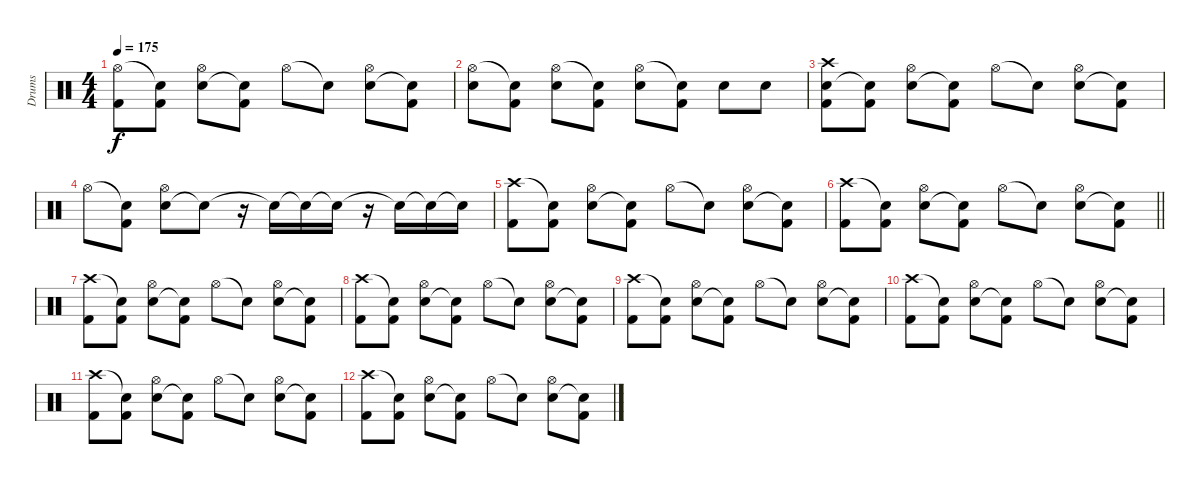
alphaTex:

\track ("Drums" "Drums") {instrument percussion}
\staff {score}
\articulation defaults
\ts (4 4)
\tempo 175
\clef neutral
\ks c
("Hi-Hat (open)" "Kick (hit) 2").8{dy f} ("Snare (hit)"{t} "Kick (hit) 2").8 ("Snare (hit) 2" "Hi-Hat (open)").8 ("Snare (hit)"{t} "Kick (hit) 2").8 "Hi-Hat (open)".8 "Snare (hit)"{t}.8 ("Snare (hit) 2" "Hi-Hat (open)").8 ("Snare (hit)"{t} "Kick (hit) 2").8 |
("Hi-Hat (open)" "Snare (hit) 2").8 ("Snare (hit)"{t} "Kick (hit) 2").8 ("Hi-Hat (open)" "Snare (hit) 2").8 ("Snare (hit)"{t} "Kick (hit) 2").8 ("Hi-Hat (open)" "Snare (hit) 2").8 ("Snare (hit)"{t} "Kick (hit) 2").8 "Snare (hit) 2".8 "Snare (hit) 2".8 |
("Snare (hit) 2" "Crash high (hit)" "Kick (hit) 2").8 ("Snare (hit)"{t} "Kick (hit) 2").8 ("Snare (hit) 2" "Hi-Hat (open)").8 ("Snare (hit)"{t} "Kick (hit) 2").8 "Hi-Hat (open)".8 "Snare (hit)"{t}.8 ("Snare (hit) 2" "Hi-Hat (open)").8 ("Snare (hit)"{t} "Kick (hit) 2").8 |
"Hi-Hat (open)".8 ("Snare (hit)"{t} "Kick (hit) 2").8 ("Snare (hit) 2" "Hi-Hat (open)").8 "Snare (hit)"{t}.8 r.16 "Snare (hit)"{t}.16 "Snare (hit)"{t}.16 "Snare (hit)"{t}.16 r.16 "Snare (hit)"{t}.16 "Snare (hit)"{t}.16 "Snare (hit)"{t}.16 |
("Crash high (hit)" "Kick (hit) 2").8 ("Snare (hit)"{t} "Kick (hit) 2").8 ("Snare (hit) 2" "Hi-Hat (open)").8 ("Snare (hit)"{t} "Kick (hit) 2").8 "Hi-Hat (open)".8 "Snare (hit)"{t}.8 ("Snare (hit) 2" "Hi-Hat (open)").8 ("Snare (hit)"{t} "Kick (hit) 2").8 |
\barLineRight lightlight
("Crash high (hit)" "Kick (hit) 2").8 ("Snare (hit)"{t} "Kick (hit) 2").8 ("Snare (hit) 2" "Hi-Hat (open)").8 ("Snare (hit)"{t} "Kick (hit) 2").8 "Hi-Hat (open)".8 "Snare (hit)"{t}.8 ("Snare (hit) 2" "Hi-Hat (open)").8 ("Snare (hit)"{t} "Kick (hit) 2").8 |
("Crash high (hit)" "Kick (hit) 2").8 ("Snare (hit)"{t} "Kick (hit) 2").8 ("Snare (hit) 2" "Hi-Hat (open)").8 ("Snare (hit)"{t} "Kick (hit) 2").8 "Hi-Hat (open)".8 "Snare (hit)"{t}.8 ("Snare (hit) 2" "Hi-Hat (open)").8 ("Snare (hit)"{t} "Kick (hit) 2").8 |
("Crash high (hit)" "Kick (hit) 2").8 ("Snare (hit)"{t} "Kick (hit) 2").8 ("Snare (hit) 2" "Hi-Hat (open)").8 ("Snare (hit)"{t} "Kick (hit) 2").8 "Hi-Hat (open)".8 "Snare (hit)"{t}.8 ("Snare (hit) 2" "Hi-Hat (open)").8 ("Snare (hit)"{t} "Kick (hit) 2").8 |
("Crash high (hit)" "Kick (hit) 2").8 ("Snare (hit)"{t} "Kick (hit) 2").8 ("Snare (hit) 2" "Hi-Hat (open)").8 ("Snare (hit)"{t} "Kick (hit) 2").8 "Hi-Hat (open)".8 "Snare (hit)"{t}.8 ("Snare (hit) 2" "Hi-Hat (open)").8 ("Snare (hit)"{t} "Kick (hit) 2").8 |
("Crash high (hit)" "Kick (hit) 2").8 ("Snare (hit)"{t} "Kick (hit) 2").8 ("Snare (hit) 2" "Hi-Hat (open)").8 ("Snare (hit)"{t} "Kick (hit) 2").8 "Hi-Hat (open)".8 "Snare (hit)"{t}.8 ("Snare (hit) 2" "Hi-Hat (open)").8 ("Snare (hit)"{t} "Kick (hit) 2").8 |
("Crash high (hit)" "Kick (hit) 2").8 ("Snare (hit)"{t} "Kick (hit) 2").8 ("Snare (hit) 2" "Hi-Hat (open)").8 ("Snare (hit)"{t} "Kick (hit) 2").8 "Hi-Hat (open)".8 "Snare (hit)"{t}.8 ("Snare (hit) 2" "Hi-Hat (open)").8 ("Snare (hit)"{t} "Kick (hit) 2").8 |
("Crash high (hit)" "Kick (hit) 2").8 ("Snare (hit)"{t} "Kick (hit) 2").8 ("Snare (hit) 2" "Hi-Hat (open)").8 ("Snare (hit)"{t} "Kick (hit) 2").8 "Hi-Hat (open)".8 "Snare (hit)"{t}.8 ("Snare (hit) 2" "Hi-Hat (open)").8 ("Snare (hit)"{t} "Kick (hit) 2").8
